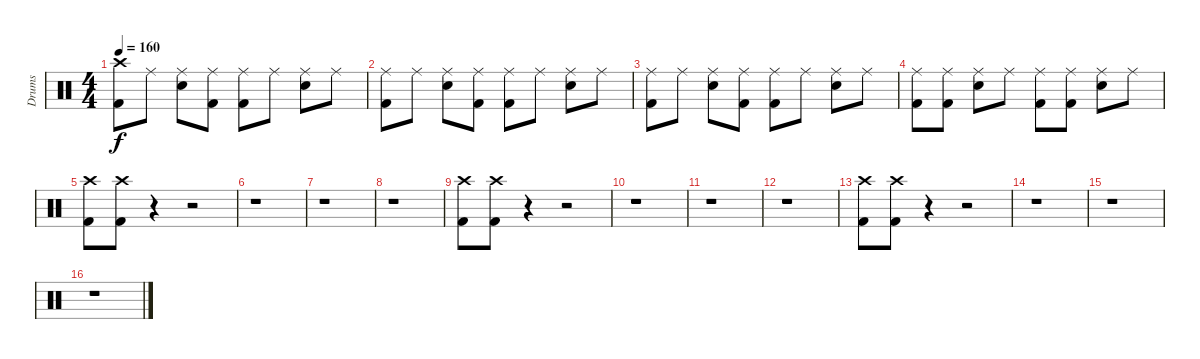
\track ("Drums" "Drums") {instrument percussion}
\staff {score}
\articulation defaults
\ts (4 4)
\tempo 160
\clef neutral
\ks c
("Crash high (hit)" "Kick (hit) 2").8{dy f} "Ride (middle)".8 ("Ride (middle)" "Electric Snare (hit)").8 ("Ride (middle)" "Kick (hit) 2").8 ("Ride (middle)" "Kick (hit) 2").8 "Ride (middle)".8 ("Ride (middle)" "Electric Snare (hit)").8 "Ride (middle)".8 |
("Ride (middle)" "Kick (hit) 2").8 "Ride (middle)".8 ("Ride (middle)" "Electric Snare (hit)").8 ("Ride (middle)" "Kick (hit) 2").8 ("Ride (middle)" "Kick (hit) 2").8 "Ride (middle)".8 ("Ride (middle)" "Electric Snare (hit)").8 "Ride (middle)".8 |
("Ride (middle)" "Kick (hit) 2").8 "Ride (middle)".8 ("Ride (middle)" "Electric Snare (hit)").8 ("Ride (middle)" "Kick (hit) 2").8 ("Ride (middle)" "Kick (hit) 2").8 "Ride (middle)".8 ("Ride (middle)" "Electric Snare (hit)").8 "Ride (middle)".8 |
("Ride (middle)" "Kick (hit) 2").8 ("Ride (middle)" "Kick (hit) 2").8 ("Ride (middle)" "Electric Snare (hit)").8 "Ride (middle)".8 ("Ride (middle)" "Kick (hit) 2").8 ("Ride (middle)" "Kick (hit) 2").8 ("Ride (middle)" "Electric Snare (hit)").8 "Ride (middle)".8 |
("Crash high (hit)" "Kick (hit) 2").8 ("Crash high (hit)" "Kick (hit) 2").8 r.4 r.2 |
r.1 |
r.1 |
r.1 |
("Crash high (hit)" "Kick (hit) 2").8 ("Crash high (hit)" "Kick (hit) 2").8 r.4 r.2 |
r.1 |
r.1 |
r.1 |
("Crash high (hit)" "Kick (hit) 2").8 ("Crash high (hit)" "Kick (hit) 2").8 r.4 r.2 |
r.1 |
r.1 |
r.1
